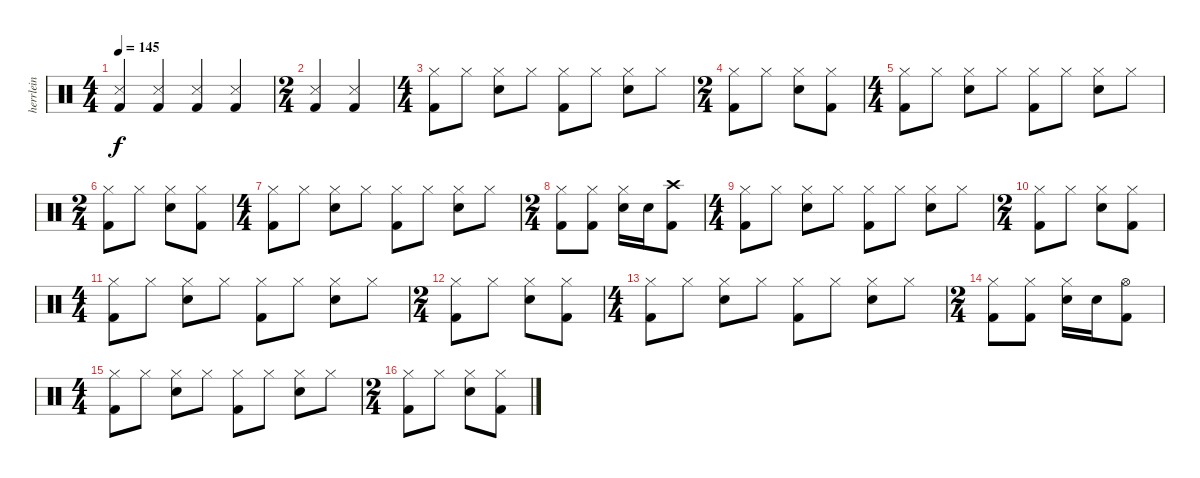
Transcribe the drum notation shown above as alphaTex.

\track ("herrlein" "herrlein") {instrument percussion}
\staff {score}
\articulation defaults
\ts (4 4)
\tempo 145
\clef neutral
\ks c
("Snare (side stick) 3" "Kick (hit) 2").4{dy f} ("Snare (side stick) 3" "Kick (hit) 2").4 ("Snare (side stick) 3" "Kick (hit) 2").4 ("Snare (side stick) 3" "Kick (hit) 2").4 |
\ts (2 4)
("Snare (side stick) 3" "Kick (hit) 2").4 ("Snare (side stick) 3" "Kick (hit) 2").4 |
\ts (4 4)
("Kick (hit) 2" "Hi-Hat (closed)").8 "Hi-Hat (closed)".8 ("Hi-Hat (closed)" "Snare (hit) 2").8 "Hi-Hat (closed)".8 ("Kick (hit) 2" "Hi-Hat (closed)").8 "Hi-Hat (closed)".8 ("Hi-Hat (closed)" "Snare (hit) 2").8 "Hi-Hat (closed)".8 |
\ts (2 4)
("Kick (hit) 2" "Hi-Hat (closed)").8 "Hi-Hat (closed)".8 ("Hi-Hat (closed)" "Snare (hit) 2").8 ("Kick (hit) 2" "Hi-Hat (closed)").8 |
\ts (4 4)
("Kick (hit) 2" "Hi-Hat (closed)").8 "Hi-Hat (closed)".8 ("Hi-Hat (closed)" "Snare (hit) 2").8 "Hi-Hat (closed)".8 ("Kick (hit) 2" "Hi-Hat (closed)").8 "Hi-Hat (closed)".8 ("Hi-Hat (closed)" "Snare (hit) 2").8 "Hi-Hat (closed)".8 |
\ts (2 4)
("Kick (hit) 2" "Hi-Hat (closed)").8 "Hi-Hat (closed)".8 ("Hi-Hat (closed)" "Snare (hit) 2").8 ("Kick (hit) 2" "Hi-Hat (closed)").8 |
\ts (4 4)
("Kick (hit) 2" "Hi-Hat (closed)").8 "Hi-Hat (closed)".8 ("Hi-Hat (closed)" "Snare (hit) 2").8 "Hi-Hat (closed)".8 ("Kick (hit) 2" "Hi-Hat (closed)").8 "Hi-Hat (closed)".8 ("Hi-Hat (closed)" "Snare (hit) 2").8 "Hi-Hat (closed)".8 |
\ts (2 4)
("Kick (hit) 2" "Hi-Hat (closed)").8 ("Kick (hit) 2" "Hi-Hat (closed)").8 ("Hi-Hat (closed)" "Snare (hit) 2").16 "Snare (hit) 2".16 ("Kick (hit) 2" "Crash high (hit)").8 |
\ts (4 4)
("Kick (hit) 2" "Hi-Hat (closed)").8 "Hi-Hat (closed)".8 ("Hi-Hat (closed)" "Snare (hit) 2").8 "Hi-Hat (closed)".8 ("Kick (hit) 2" "Hi-Hat (closed)").8 "Hi-Hat (closed)".8 ("Hi-Hat (closed)" "Snare (hit) 2").8 "Hi-Hat (closed)".8 |
\ts (2 4)
("Kick (hit) 2" "Hi-Hat (closed)").8 "Hi-Hat (closed)".8 ("Hi-Hat (closed)" "Snare (hit) 2").8 ("Kick (hit) 2" "Hi-Hat (closed)").8 |
\ts (4 4)
("Kick (hit) 2" "Hi-Hat (closed)").8 "Hi-Hat (closed)".8 ("Hi-Hat (closed)" "Snare (hit) 2").8 "Hi-Hat (closed)".8 ("Kick (hit) 2" "Hi-Hat (closed)").8 "Hi-Hat (closed)".8 ("Hi-Hat (closed)" "Snare (hit) 2").8 "Hi-Hat (closed)".8 |
\ts (2 4)
("Kick (hit) 2" "Hi-Hat (closed)").8 "Hi-Hat (closed)".8 ("Hi-Hat (closed)" "Snare (hit) 2").8 ("Kick (hit) 2" "Hi-Hat (closed)").8 |
\ts (4 4)
("Kick (hit) 2" "Hi-Hat (closed)").8 "Hi-Hat (closed)".8 ("Hi-Hat (closed)" "Snare (hit) 2").8 "Hi-Hat (closed)".8 ("Kick (hit) 2" "Hi-Hat (closed)").8 "Hi-Hat (closed)".8 ("Hi-Hat (closed)" "Snare (hit) 2").8 "Hi-Hat (closed)".8 |
\ts (2 4)
("Kick (hit) 2" "Hi-Hat (closed)").8 ("Kick (hit) 2" "Hi-Hat (closed)").8 ("Hi-Hat (closed)" "Snare (hit) 2").16 "Snare (hit) 2".16 ("Kick (hit) 2" "Hi-Hat (open)").8 |
\ts (4 4)
("Kick (hit) 2" "Hi-Hat (closed)").8 "Hi-Hat (closed)".8 ("Hi-Hat (closed)" "Snare (hit) 2").8 "Hi-Hat (closed)".8 ("Kick (hit) 2" "Hi-Hat (closed)").8 "Hi-Hat (closed)".8 ("Hi-Hat (closed)" "Snare (hit) 2").8 "Hi-Hat (closed)".8 |
\ts (2 4)
("Kick (hit) 2" "Hi-Hat (closed)").8 "Hi-Hat (closed)".8 ("Hi-Hat (closed)" "Snare (hit) 2").8 ("Kick (hit) 2" "Hi-Hat (closed)").8
